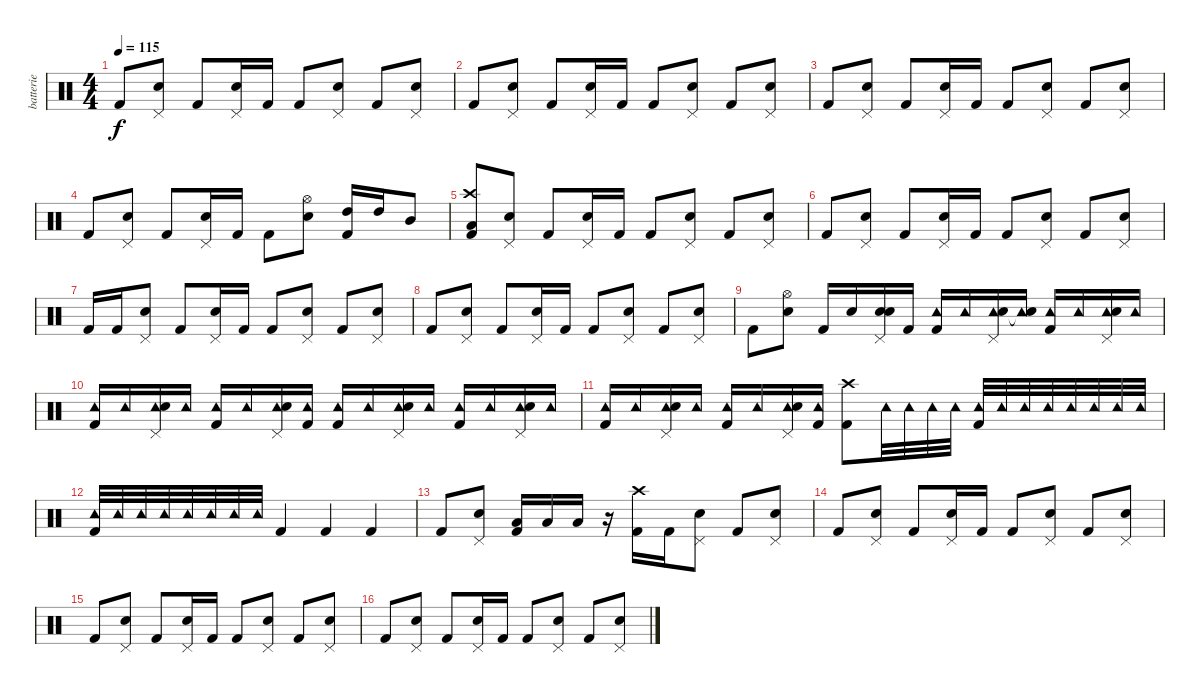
\track ("batterie" "batterie") {instrument percussion}
\staff {score}
\articulation defaults
\ts (4 4)
\tempo 115
\clef neutral
\ks c "Kick (hit) 2".8{dy f}
("Pedal Hi-Hat (hit)" "Electric Snare (hit)").8 "Kick (hit) 2".8 ("Pedal Hi-Hat (hit)" "Electric Snare (hit)").16 "Kick (hit) 2".16 "Kick (hit) 2".8 ("Pedal Hi-Hat (hit)" "Electric Snare (hit)").8 "Kick (hit) 2".8 ("Pedal Hi-Hat (hit)" "Electric Snare (hit)").8 |
"Kick (hit) 2".8 ("Pedal Hi-Hat (hit)" "Electric Snare (hit)").8 "Kick (hit) 2".8 ("Pedal Hi-Hat (hit)" "Electric Snare (hit)").16 "Kick (hit) 2".16 "Kick (hit) 2".8 ("Pedal Hi-Hat (hit)" "Electric Snare (hit)").8 "Kick (hit) 2".8 ("Pedal Hi-Hat (hit)" "Electric Snare (hit)").8 |
"Kick (hit) 2".8 ("Pedal Hi-Hat (hit)" "Electric Snare (hit)").8 "Kick (hit) 2".8 ("Pedal Hi-Hat (hit)" "Electric Snare (hit)").16 "Kick (hit) 2".16 "Kick (hit) 2".8 ("Pedal Hi-Hat (hit)" "Electric Snare (hit)").8 "Kick (hit) 2".8 ("Pedal Hi-Hat (hit)" "Electric Snare (hit)").8 |
"Kick (hit) 2".8 ("Pedal Hi-Hat (hit)" "Electric Snare (hit)").8 "Kick (hit) 2".8 ("Pedal Hi-Hat (hit)" "Electric Snare (hit)").16 "Kick (hit) 2".16 "Kick (hit) 2".8 ("Hi-Hat (open)" "Electric Snare (hit)").8 ("High Tom (hit)" "Kick (hit) 2").16 "High Tom (hit)".16 "Mid Tom (hit)".8 |
("Crash high (hit)" "Low Tom (hit)" "Kick (hit) 2").8 ("Pedal Hi-Hat (hit)" "Electric Snare (hit)").8 "Kick (hit) 2".8 ("Pedal Hi-Hat (hit)" "Electric Snare (hit)").16 "Kick (hit) 2".16 "Kick (hit) 2".8 ("Pedal Hi-Hat (hit)" "Electric Snare (hit)").8 "Kick (hit) 2".8 ("Pedal Hi-Hat (hit)" "Electric Snare (hit)").8 |
"Kick (hit) 2".8 ("Pedal Hi-Hat (hit)" "Electric Snare (hit)").8 "Kick (hit) 2".8 ("Pedal Hi-Hat (hit)" "Electric Snare (hit)").16 "Kick (hit) 2".16 "Kick (hit) 2".8 ("Pedal Hi-Hat (hit)" "Electric Snare (hit)").8 "Kick (hit) 2".8 ("Pedal Hi-Hat (hit)" "Electric Snare (hit)").8 |
"Kick (hit) 2".16 "Kick (hit) 2".16 ("Pedal Hi-Hat (hit)" "Electric Snare (hit)").8 "Kick (hit) 2".8 ("Pedal Hi-Hat (hit)" "Electric Snare (hit)").16 "Kick (hit) 2".16 "Kick (hit) 2".8 ("Pedal Hi-Hat (hit)" "Electric Snare (hit)").8 "Kick (hit) 2".8 ("Pedal Hi-Hat (hit)" "Electric Snare (hit)").8 |
"Kick (hit) 2".8 ("Pedal Hi-Hat (hit)" "Electric Snare (hit)").8 "Kick (hit) 2".8 ("Pedal Hi-Hat (hit)" "Electric Snare (hit)").16 "Kick (hit) 2".16 "Kick (hit) 2".8 ("Pedal Hi-Hat (hit)" "Electric Snare (hit)").8 "Kick (hit) 2".8 ("Pedal Hi-Hat (hit)" "Electric Snare (hit)").8 |
"Kick (hit) 2".8 ("Hi-Hat (open)" "Electric Snare (hit)").8 "Kick (hit) 2".16 "Electric Snare (hit)".16 ("Pedal Hi-Hat (hit)" "Electric Snare (hit)" "Snare (hit)").16 "Kick (hit) 2".16 ("Tambourine (hit)" "Kick (hit) 2").16 "Tambourine (hit)".16 ("Pedal Hi-Hat (hit)" "Tambourine (hit)" "Electric Snare (hit)").16 ("Tambourine (hit)" "Snare (hit)"{t}).16 ("Tambourine (hit)" "Kick (hit) 2").16 "Tambourine (hit)".16 ("Pedal Hi-Hat (hit)" "Tambourine (hit)" "Electric Snare (hit)").16 "Tambourine (hit)".16 |
("Tambourine (hit)" "Kick (hit) 2").16 "Tambourine (hit)".16 ("Pedal Hi-Hat (hit)" "Tambourine (hit)" "Electric Snare (hit)").16 "Tambourine (hit)".16 ("Tambourine (hit)" "Kick (hit) 2").16 "Tambourine (hit)".16 ("Pedal Hi-Hat (hit)" "Tambourine (hit)" "Electric Snare (hit)").16 ("Tambourine (hit)" "Kick (hit) 2").16 ("Tambourine (hit)" "Kick (hit) 2").16 "Tambourine (hit)".16 ("Pedal Hi-Hat (hit)" "Tambourine (hit)" "Electric Snare (hit)").16 "Tambourine (hit)".16 ("Tambourine (hit)" "Kick (hit) 2").16 "Tambourine (hit)".16 ("Pedal Hi-Hat (hit)" "Tambourine (hit)" "Electric Snare (hit)").16 "Tambourine (hit)".16 |
("Tambourine (hit)" "Kick (hit) 2").16 "Tambourine (hit)".16 ("Pedal Hi-Hat (hit)" "Tambourine (hit)" "Electric Snare (hit)").16 "Tambourine (hit)".16 ("Tambourine (hit)" "Kick (hit) 2").16 "Tambourine (hit)".16 ("Pedal Hi-Hat (hit)" "Tambourine (hit)" "Electric Snare (hit)").16 ("Tambourine (hit)" "Kick (hit) 2").16 ("Crash high (hit)" "Kick (hit) 2").8 "Tambourine (hit)".32 "Tambourine (hit)".32 "Tambourine (hit)".32 "Tambourine (hit)".32 ("Tambourine (hit)" "Kick (hit) 2").32 "Tambourine (hit)".32 "Tambourine (hit)".32 "Tambourine (hit)".32 "Tambourine (hit)".32 "Tambourine (hit)".32 "Tambourine (hit)".32 "Tambourine (hit)".32 |
("Tambourine (hit)" "Kick (hit) 2").32 "Tambourine (hit)".32 "Tambourine (hit)".32 "Tambourine (hit)".32 "Tambourine (hit)".32 "Tambourine (hit)".32 "Tambourine (hit)".32 "Tambourine (hit)".32 "Kick (hit) 2".4 "Kick (hit) 2".4 "Kick (hit) 2".4 |
"Kick (hit) 2".8 ("Pedal Hi-Hat (hit)" "Electric Snare (hit)").8 ("Low Tom (hit)" "Kick (hit) 2").16 "Low Tom (hit)".16 "Low Tom (hit)".16 r.16 ("Crash high (hit)" "Kick (hit) 2").16 "Kick (hit) 2".16 ("Pedal Hi-Hat (hit)" "Electric Snare (hit)").8 "Kick (hit) 2".8 ("Pedal Hi-Hat (hit)" "Electric Snare (hit)").8 |
"Kick (hit) 2".8 ("Pedal Hi-Hat (hit)" "Electric Snare (hit)").8 "Kick (hit) 2".8 ("Pedal Hi-Hat (hit)" "Electric Snare (hit)").16 "Kick (hit) 2".16 "Kick (hit) 2".8 ("Pedal Hi-Hat (hit)" "Electric Snare (hit)").8 "Kick (hit) 2".8 ("Pedal Hi-Hat (hit)" "Electric Snare (hit)").8 |
"Kick (hit) 2".8 ("Pedal Hi-Hat (hit)" "Electric Snare (hit)").8 "Kick (hit) 2".8 ("Pedal Hi-Hat (hit)" "Electric Snare (hit)").16 "Kick (hit) 2".16 "Kick (hit) 2".8 ("Pedal Hi-Hat (hit)" "Electric Snare (hit)").8 "Kick (hit) 2".8 ("Pedal Hi-Hat (hit)" "Electric Snare (hit)").8 |
"Kick (hit) 2".8 ("Pedal Hi-Hat (hit)" "Electric Snare (hit)").8 "Kick (hit) 2".8 ("Pedal Hi-Hat (hit)" "Electric Snare (hit)").16 "Kick (hit) 2".16 "Kick (hit) 2".8 ("Pedal Hi-Hat (hit)" "Electric Snare (hit)").8 "Kick (hit) 2".8 ("Pedal Hi-Hat (hit)" "Electric Snare (hit)").8
